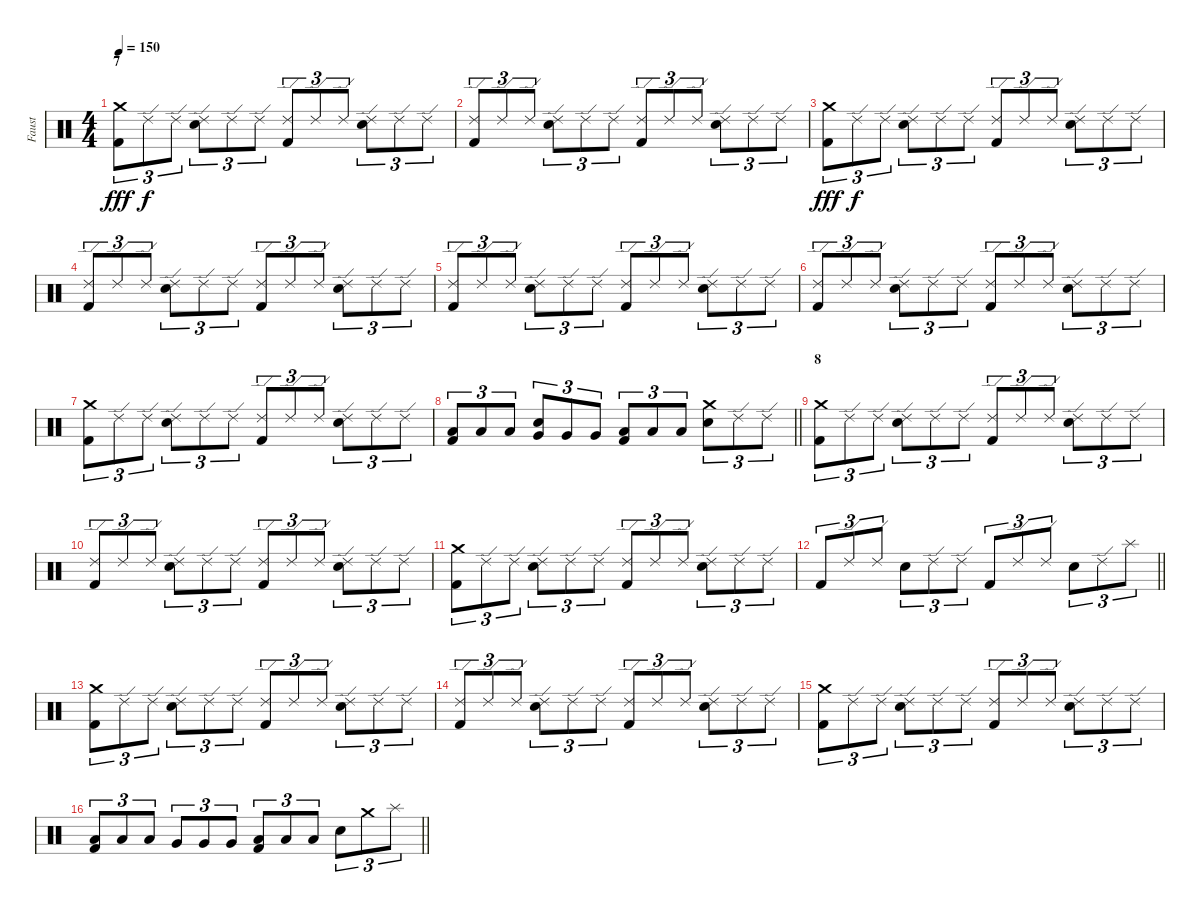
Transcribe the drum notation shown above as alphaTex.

\track ("Faust" "Faust") {instrument percussion}
\staff {score}
\articulation defaults
\ts (4 4)
\section ("" "7")
\tempo 150
\clef neutral
\ks c
("Crash medium (hit)" "Kick (hit) 2").8{tu (3 2) dy fff} "Ride (edge) 2".8{tu (3 2) dy f} "Ride (edge) 2".8{tu (3 2)} ("Ride (edge) 2" "Electric Snare (hit)").8{tu (3 2)} "Ride (edge) 2".8{tu (3 2)} "Ride (edge) 2".8{tu (3 2)} ("Ride (edge) 2" "Kick (hit) 2").8{tu (3 2)} "Ride (edge) 2".8{tu (3 2)} "Ride (edge) 2".8{tu (3 2)} ("Ride (edge) 2" "Electric Snare (hit)").8{tu (3 2)} "Ride (edge) 2".8{tu (3 2)} "Ride (edge) 2".8{tu (3 2)} |
("Ride (edge) 2" "Kick (hit) 2").8{tu (3 2)} "Ride (edge) 2".8{tu (3 2)} "Ride (edge) 2".8{tu (3 2)} ("Ride (edge) 2" "Electric Snare (hit)").8{tu (3 2)} "Ride (edge) 2".8{tu (3 2)} "Ride (edge) 2".8{tu (3 2)} ("Ride (edge) 2" "Kick (hit) 2").8{tu (3 2)} "Ride (edge) 2".8{tu (3 2)} "Ride (edge) 2".8{tu (3 2)} ("Ride (edge) 2" "Electric Snare (hit)").8{tu (3 2)} "Ride (edge) 2".8{tu (3 2)} "Ride (edge) 2".8{tu (3 2)} |
("Crash medium (hit)" "Kick (hit) 2").8{tu (3 2) dy fff} "Ride (edge) 2".8{tu (3 2) dy f} "Ride (edge) 2".8{tu (3 2)} ("Ride (edge) 2" "Electric Snare (hit)").8{tu (3 2)} "Ride (edge) 2".8{tu (3 2)} "Ride (edge) 2".8{tu (3 2)} ("Ride (edge) 2" "Kick (hit) 2").8{tu (3 2)} "Ride (edge) 2".8{tu (3 2)} "Ride (edge) 2".8{tu (3 2)} ("Ride (edge) 2" "Electric Snare (hit)").8{tu (3 2)} "Ride (edge) 2".8{tu (3 2)} "Ride (edge) 2".8{tu (3 2)} |
("Ride (edge) 2" "Kick (hit) 2").8{tu (3 2)} "Ride (edge) 2".8{tu (3 2)} "Ride (edge) 2".8{tu (3 2)} ("Ride (edge) 2" "Electric Snare (hit)").8{tu (3 2)} "Ride (edge) 2".8{tu (3 2)} "Ride (edge) 2".8{tu (3 2)} ("Ride (edge) 2" "Kick (hit) 2").8{tu (3 2)} "Ride (edge) 2".8{tu (3 2)} "Ride (edge) 2".8{tu (3 2)} ("Ride (edge) 2" "Electric Snare (hit)").8{tu (3 2)} "Ride (edge) 2".8{tu (3 2)} "Ride (edge) 2".8{tu (3 2)} |
("Ride (edge) 2" "Kick (hit) 2").8{tu (3 2)} "Ride (edge) 2".8{tu (3 2)} "Ride (edge) 2".8{tu (3 2)} ("Ride (edge) 2" "Electric Snare (hit)").8{tu (3 2)} "Ride (edge) 2".8{tu (3 2)} "Ride (edge) 2".8{tu (3 2)} ("Ride (edge) 2" "Kick (hit) 2").8{tu (3 2)} "Ride (edge) 2".8{tu (3 2)} "Ride (edge) 2".8{tu (3 2)} ("Ride (edge) 2" "Electric Snare (hit)").8{tu (3 2)} "Ride (edge) 2".8{tu (3 2)} "Ride (edge) 2".8{tu (3 2)} |
("Ride (edge) 2" "Kick (hit) 2").8{tu (3 2)} "Ride (edge) 2".8{tu (3 2)} "Ride (edge) 2".8{tu (3 2)} ("Ride (edge) 2" "Electric Snare (hit)").8{tu (3 2)} "Ride (edge) 2".8{tu (3 2)} "Ride (edge) 2".8{tu (3 2)} ("Ride (edge) 2" "Kick (hit) 2").8{tu (3 2)} "Ride (edge) 2".8{tu (3 2)} "Ride (edge) 2".8{tu (3 2)} ("Ride (edge) 2" "Electric Snare (hit)").8{tu (3 2)} "Ride (edge) 2".8{tu (3 2)} "Ride (edge) 2".8{tu (3 2)} |
("Crash medium (hit)" "Kick (hit) 2").8{tu (3 2)} "Ride (edge) 2".8{tu (3 2)} "Ride (edge) 2".8{tu (3 2)} ("Ride (edge) 2" "Electric Snare (hit)").8{tu (3 2)} "Ride (edge) 2".8{tu (3 2)} "Ride (edge) 2".8{tu (3 2)} ("Ride (edge) 2" "Kick (hit) 2").8{tu (3 2)} "Ride (edge) 2".8{tu (3 2)} "Ride (edge) 2".8{tu (3 2)} ("Ride (edge) 2" "Electric Snare (hit)").8{tu (3 2)} "Ride (edge) 2".8{tu (3 2)} "Ride (edge) 2".8{tu (3 2)} |
\barLineRight lightlight
("Low Tom (hit)" "Kick (hit) 2").8{tu (3 2)} "Low Tom (hit)".8{tu (3 2)} "Low Tom (hit)".8{tu (3 2)} ("Very Low Tom (hit)" "Electric Snare (hit)").8{tu (3 2)} "Very Low Tom (hit)".8{tu (3 2)} "Very Low Tom (hit)".8{tu (3 2)} ("Low Floor Tom (hit)" "Kick (hit) 2").8{tu (3 2)} "Low Floor Tom (hit)".8{tu (3 2)} "Low Floor Tom (hit)".8{tu (3 2)} ("Crash medium (hit)" "Electric Snare (hit)").8{tu (3 2)} "Ride (edge) 2".8{tu (3 2)} "Ride (edge) 2".8{tu (3 2)} |
\section ("" "8")
("Crash medium (hit)" "Kick (hit) 2").8{tu (3 2)} "Ride (edge) 2".8{tu (3 2)} "Ride (edge) 2".8{tu (3 2)} ("Ride (edge) 2" "Electric Snare (hit)").8{tu (3 2)} "Ride (edge) 2".8{tu (3 2)} "Ride (edge) 2".8{tu (3 2)} ("Ride (edge) 2" "Kick (hit) 2").8{tu (3 2)} "Ride (edge) 2".8{tu (3 2)} "Ride (edge) 2".8{tu (3 2)} ("Ride (edge) 2" "Electric Snare (hit)").8{tu (3 2)} "Ride (edge) 2".8{tu (3 2)} "Ride (edge) 2".8{tu (3 2)} |
("Ride (edge) 2" "Kick (hit) 2").8{tu (3 2)} "Ride (edge) 2".8{tu (3 2)} "Ride (edge) 2".8{tu (3 2)} ("Ride (edge) 2" "Electric Snare (hit)").8{tu (3 2)} "Ride (edge) 2".8{tu (3 2)} "Ride (edge) 2".8{tu (3 2)} ("Ride (edge) 2" "Kick (hit) 2").8{tu (3 2)} "Ride (edge) 2".8{tu (3 2)} "Ride (edge) 2".8{tu (3 2)} ("Ride (edge) 2" "Electric Snare (hit)").8{tu (3 2)} "Ride (edge) 2".8{tu (3 2)} "Ride (edge) 2".8{tu (3 2)} |
("Crash medium (hit)" "Kick (hit) 2").8{tu (3 2)} "Ride (edge) 2".8{tu (3 2)} "Ride (edge) 2".8{tu (3 2)} ("Ride (edge) 2" "Electric Snare (hit)").8{tu (3 2)} "Ride (edge) 2".8{tu (3 2)} "Ride (edge) 2".8{tu (3 2)} ("Ride (edge) 2" "Kick (hit) 2").8{tu (3 2)} "Ride (edge) 2".8{tu (3 2)} "Ride (edge) 2".8{tu (3 2)} ("Ride (edge) 2" "Electric Snare (hit)").8{tu (3 2)} "Ride (edge) 2".8{tu (3 2)} "Ride (edge) 2".8{tu (3 2)} |
\barLineRight lightlight "Kick (hit) 2".8{tu (3 2)} "Ride (edge) 2".8{tu (3 2)} "Ride (edge) 2".8{tu (3 2)} "Electric Snare (hit)".8{tu (3 2)} "Ride (edge) 2".8{tu (3 2)} "Ride (edge) 2".8{tu (3 2)} "Kick (hit) 2".8{tu (3 2)} "Ride (edge) 2".8{tu (3 2)} "Ride (edge) 2".8{tu (3 2)} "Electric Snare (hit)".8{tu (3 2)} "Ride (edge) 2".8{tu (3 2)} "Splash (hit)".8{tu (3 2)}
|
("Crash medium (hit)" "Kick (hit) 2").8{tu (3 2)} "Ride (edge) 2".8{tu (3 2)} "Ride (edge) 2".8{tu (3 2)} ("Ride (edge) 2" "Electric Snare (hit)").8{tu (3 2)} "Ride (edge) 2".8{tu (3 2)} "Ride (edge) 2".8{tu (3 2)} ("Ride (edge) 2" "Kick (hit) 2").8{tu (3 2)} "Ride (edge) 2".8{tu (3 2)} "Ride (edge) 2".8{tu (3 2)} ("Ride (edge) 2" "Electric Snare (hit)").8{tu (3 2)} "Ride (edge) 2".8{tu (3 2)} "Ride (edge) 2".8{tu (3 2)} |
("Ride (edge) 2" "Kick (hit) 2").8{tu (3 2)} "Ride (edge) 2".8{tu (3 2)} "Ride (edge) 2".8{tu (3 2)} ("Ride (edge) 2" "Electric Snare (hit)").8{tu (3 2)} "Ride (edge) 2".8{tu (3 2)} "Ride (edge) 2".8{tu (3 2)} ("Ride (edge) 2" "Kick (hit) 2").8{tu (3 2)} "Ride (edge) 2".8{tu (3 2)} "Ride (edge) 2".8{tu (3 2)} ("Ride (edge) 2" "Electric Snare (hit)").8{tu (3 2)} "Ride (edge) 2".8{tu (3 2)} "Ride (edge) 2".8{tu (3 2)} |
("Crash medium (hit)" "Kick (hit) 2").8{tu (3 2)} "Ride (edge) 2".8{tu (3 2)} "Ride (edge) 2".8{tu (3 2)} ("Ride (edge) 2" "Electric Snare (hit)").8{tu (3 2)} "Ride (edge) 2".8{tu (3 2)} "Ride (edge) 2".8{tu (3 2)} ("Ride (edge) 2" "Kick (hit) 2").8{tu (3 2)} "Ride (edge) 2".8{tu (3 2)} "Ride (edge) 2".8{tu (3 2)} ("Ride (edge) 2" "Electric Snare (hit)").8{tu (3 2)} "Ride (edge) 2".8{tu (3 2)} "Ride (edge) 2".8{tu (3 2)} |
\barLineRight lightlight
("Low Tom (hit)" "Kick (hit) 2").8{tu (3 2)} "Low Tom (hit)".8{tu (3 2)} "Low Tom (hit)".8{tu (3 2)} "Very Low Tom (hit)".8{tu (3 2)} "Very Low Tom (hit)".8{tu (3 2)} "Very Low Tom (hit)".8{tu (3 2)} ("Low Floor Tom (hit)" "Kick (hit) 2").8{tu (3 2)} "Low Floor Tom (hit)".8{tu (3 2)} "Low Floor Tom (hit)".8{tu (3 2)} "Electric Snare (hit)".8{tu (3 2)} "Crash medium (hit)".8{tu (3 2)} "Splash (hit)".8{tu (3 2)}
